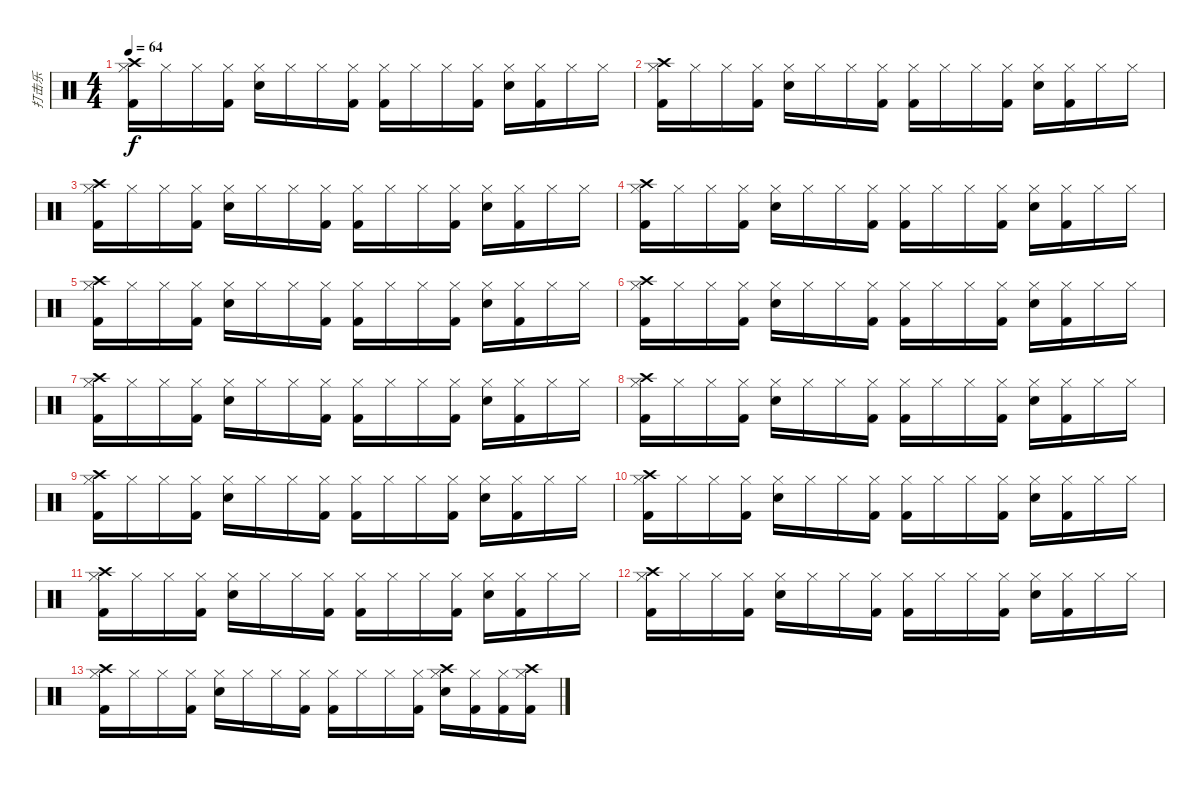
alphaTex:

\track ("打击乐" "打击乐") {instrument percussion}
\staff {score}
\articulation defaults
\ts (4 4)
\tempo 64
\clef neutral
\ks c
("Crash high (hit)" "Hi-Hat (closed)" "Kick (hit) 2").16{dy f} "Hi-Hat (closed)".16 "Hi-Hat (closed)".16 ("Hi-Hat (closed)" "Kick (hit) 2").16 ("Hi-Hat (closed)" "Snare (hit) 2").16 "Hi-Hat (closed)".16 "Hi-Hat (closed)".16 ("Hi-Hat (closed)" "Kick (hit) 2").16 ("Hi-Hat (closed)" "Kick (hit) 2").16 "Hi-Hat (closed)".16 "Hi-Hat (closed)".16 ("Hi-Hat (closed)" "Kick (hit) 2").16 ("Hi-Hat (closed)" "Snare (hit) 2").16 ("Hi-Hat (closed)" "Kick (hit) 2").16 "Hi-Hat (closed)".16 "Hi-Hat (closed)".16 |
("Crash high (hit)" "Hi-Hat (closed)" "Kick (hit) 2").16 "Hi-Hat (closed)".16 "Hi-Hat (closed)".16 ("Hi-Hat (closed)" "Kick (hit) 2").16 ("Hi-Hat (closed)" "Snare (hit) 2").16 "Hi-Hat (closed)".16 "Hi-Hat (closed)".16 ("Hi-Hat (closed)" "Kick (hit) 2").16 ("Hi-Hat (closed)" "Kick (hit) 2").16 "Hi-Hat (closed)".16 "Hi-Hat (closed)".16 ("Hi-Hat (closed)" "Kick (hit) 2").16 ("Hi-Hat (closed)" "Snare (hit) 2").16 ("Hi-Hat (closed)" "Kick (hit) 2").16 "Hi-Hat (closed)".16 "Hi-Hat (closed)".16 |
("Crash high (hit)" "Hi-Hat (closed)" "Kick (hit) 2").16 "Hi-Hat (closed)".16 "Hi-Hat (closed)".16 ("Hi-Hat (closed)" "Kick (hit) 2").16 ("Hi-Hat (closed)" "Snare (hit) 2").16 "Hi-Hat (closed)".16 "Hi-Hat (closed)".16 ("Hi-Hat (closed)" "Kick (hit) 2").16 ("Hi-Hat (closed)" "Kick (hit) 2").16 "Hi-Hat (closed)".16 "Hi-Hat (closed)".16 ("Hi-Hat (closed)" "Kick (hit) 2").16 ("Hi-Hat (closed)" "Snare (hit) 2").16 ("Hi-Hat (closed)" "Kick (hit) 2").16 "Hi-Hat (closed)".16 "Hi-Hat (closed)".16 |
("Crash high (hit)" "Hi-Hat (closed)" "Kick (hit) 2").16 "Hi-Hat (closed)".16 "Hi-Hat (closed)".16 ("Hi-Hat (closed)" "Kick (hit) 2").16 ("Hi-Hat (closed)" "Snare (hit) 2").16 "Hi-Hat (closed)".16 "Hi-Hat (closed)".16 ("Hi-Hat (closed)" "Kick (hit) 2").16 ("Hi-Hat (closed)" "Kick (hit) 2").16 "Hi-Hat (closed)".16 "Hi-Hat (closed)".16 ("Hi-Hat (closed)" "Kick (hit) 2").16 ("Hi-Hat (closed)" "Snare (hit) 2").16 ("Hi-Hat (closed)" "Kick (hit) 2").16 "Hi-Hat (closed)".16 "Hi-Hat (closed)".16 |
("Crash high (hit)" "Hi-Hat (closed)" "Kick (hit) 2").16 "Hi-Hat (closed)".16 "Hi-Hat (closed)".16 ("Hi-Hat (closed)" "Kick (hit) 2").16 ("Hi-Hat (closed)" "Snare (hit) 2").16 "Hi-Hat (closed)".16 "Hi-Hat (closed)".16 ("Hi-Hat (closed)" "Kick (hit) 2").16 ("Hi-Hat (closed)" "Kick (hit) 2").16 "Hi-Hat (closed)".16 "Hi-Hat (closed)".16 ("Hi-Hat (closed)" "Kick (hit) 2").16 ("Hi-Hat (closed)" "Snare (hit) 2").16 ("Hi-Hat (closed)" "Kick (hit) 2").16 "Hi-Hat (closed)".16 "Hi-Hat (closed)".16 |
("Crash high (hit)" "Hi-Hat (closed)" "Kick (hit) 2").16 "Hi-Hat (closed)".16 "Hi-Hat (closed)".16 ("Hi-Hat (closed)" "Kick (hit) 2").16 ("Hi-Hat (closed)" "Snare (hit) 2").16 "Hi-Hat (closed)".16 "Hi-Hat (closed)".16 ("Hi-Hat (closed)" "Kick (hit) 2").16 ("Hi-Hat (closed)" "Kick (hit) 2").16 "Hi-Hat (closed)".16 "Hi-Hat (closed)".16 ("Hi-Hat (closed)" "Kick (hit) 2").16 ("Hi-Hat (closed)" "Snare (hit) 2").16 ("Hi-Hat (closed)" "Kick (hit) 2").16 "Hi-Hat (closed)".16 "Hi-Hat (closed)".16 |
("Crash high (hit)" "Hi-Hat (closed)" "Kick (hit) 2").16 "Hi-Hat (closed)".16 "Hi-Hat (closed)".16 ("Hi-Hat (closed)" "Kick (hit) 2").16 ("Hi-Hat (closed)" "Snare (hit) 2").16 "Hi-Hat (closed)".16 "Hi-Hat (closed)".16 ("Hi-Hat (closed)" "Kick (hit) 2").16 ("Hi-Hat (closed)" "Kick (hit) 2").16 "Hi-Hat (closed)".16 "Hi-Hat (closed)".16 ("Hi-Hat (closed)" "Kick (hit) 2").16 ("Hi-Hat (closed)" "Snare (hit) 2").16 ("Hi-Hat (closed)" "Kick (hit) 2").16 "Hi-Hat (closed)".16 "Hi-Hat (closed)".16 |
("Crash high (hit)" "Hi-Hat (closed)" "Kick (hit) 2").16 "Hi-Hat (closed)".16 "Hi-Hat (closed)".16 ("Hi-Hat (closed)" "Kick (hit) 2").16 ("Hi-Hat (closed)" "Snare (hit) 2").16 "Hi-Hat (closed)".16 "Hi-Hat (closed)".16 ("Hi-Hat (closed)" "Kick (hit) 2").16 ("Hi-Hat (closed)" "Kick (hit) 2").16 "Hi-Hat (closed)".16 "Hi-Hat (closed)".16 ("Hi-Hat (closed)" "Kick (hit) 2").16 ("Hi-Hat (closed)" "Snare (hit) 2").16 ("Hi-Hat (closed)" "Kick (hit) 2").16 "Hi-Hat (closed)".16 "Hi-Hat (closed)".16 |
("Crash high (hit)" "Hi-Hat (closed)" "Kick (hit) 2").16 "Hi-Hat (closed)".16 "Hi-Hat (closed)".16 ("Hi-Hat (closed)" "Kick (hit) 2").16 ("Hi-Hat (closed)" "Snare (hit) 2").16 "Hi-Hat (closed)".16 "Hi-Hat (closed)".16 ("Hi-Hat (closed)" "Kick (hit) 2").16 ("Hi-Hat (closed)" "Kick (hit) 2").16 "Hi-Hat (closed)".16 "Hi-Hat (closed)".16 ("Hi-Hat (closed)" "Kick (hit) 2").16 ("Hi-Hat (closed)" "Snare (hit) 2").16 ("Hi-Hat (closed)" "Kick (hit) 2").16 "Hi-Hat (closed)".16 "Hi-Hat (closed)".16 |
("Crash high (hit)" "Hi-Hat (closed)" "Kick (hit) 2").16 "Hi-Hat (closed)".16 "Hi-Hat (closed)".16 ("Hi-Hat (closed)" "Kick (hit) 2").16 ("Hi-Hat (closed)" "Snare (hit) 2").16 "Hi-Hat (closed)".16 "Hi-Hat (closed)".16 ("Hi-Hat (closed)" "Kick (hit) 2").16 ("Hi-Hat (closed)" "Kick (hit) 2").16 "Hi-Hat (closed)".16 "Hi-Hat (closed)".16 ("Hi-Hat (closed)" "Kick (hit) 2").16 ("Hi-Hat (closed)" "Snare (hit) 2").16 ("Hi-Hat (closed)" "Kick (hit) 2").16 "Hi-Hat (closed)".16 "Hi-Hat (closed)".16 |
("Crash high (hit)" "Hi-Hat (closed)" "Kick (hit) 2").16 "Hi-Hat (closed)".16 "Hi-Hat (closed)".16 ("Hi-Hat (closed)" "Kick (hit) 2").16 ("Hi-Hat (closed)" "Snare (hit) 2").16 "Hi-Hat (closed)".16 "Hi-Hat (closed)".16 ("Hi-Hat (closed)" "Kick (hit) 2").16 ("Hi-Hat (closed)" "Kick (hit) 2").16 "Hi-Hat (closed)".16 "Hi-Hat (closed)".16 ("Hi-Hat (closed)" "Kick (hit) 2").16 ("Hi-Hat (closed)" "Snare (hit) 2").16 ("Hi-Hat (closed)" "Kick (hit) 2").16 "Hi-Hat (closed)".16 "Hi-Hat (closed)".16 |
("Crash high (hit)" "Hi-Hat (closed)" "Kick (hit) 2").16 "Hi-Hat (closed)".16 "Hi-Hat (closed)".16 ("Hi-Hat (closed)" "Kick (hit) 2").16 ("Hi-Hat (closed)" "Snare (hit) 2").16 "Hi-Hat (closed)".16 "Hi-Hat (closed)".16 ("Hi-Hat (closed)" "Kick (hit) 2").16 ("Hi-Hat (closed)" "Kick (hit) 2").16 "Hi-Hat (closed)".16 "Hi-Hat (closed)".16 ("Hi-Hat (closed)" "Kick (hit) 2").16 ("Hi-Hat (closed)" "Snare (hit) 2").16 ("Hi-Hat (closed)" "Kick (hit) 2").16 "Hi-Hat (closed)".16 "Hi-Hat (closed)".16 |
("Crash high (hit)" "Hi-Hat (closed)" "Kick (hit) 2").16 "Hi-Hat (closed)".16 "Hi-Hat (closed)".16 ("Hi-Hat (closed)" "Kick (hit) 2").16 ("Hi-Hat (closed)" "Snare (hit) 2").16 "Hi-Hat (closed)".16 "Hi-Hat (closed)".16 ("Hi-Hat (closed)" "Kick (hit) 2").16 ("Hi-Hat (closed)" "Kick (hit) 2").16 "Hi-Hat (closed)".16 "Hi-Hat (closed)".16 ("Hi-Hat (closed)" "Kick (hit) 2").16 ("Crash high (hit)" "Hi-Hat (closed)" "Snare (hit) 2").16 ("Hi-Hat (closed)" "Kick (hit) 2").16 ("Hi-Hat (closed)" "Kick (hit) 2").16 ("Crash high (hit)" "Hi-Hat (closed)" "Kick (hit) 2").16
